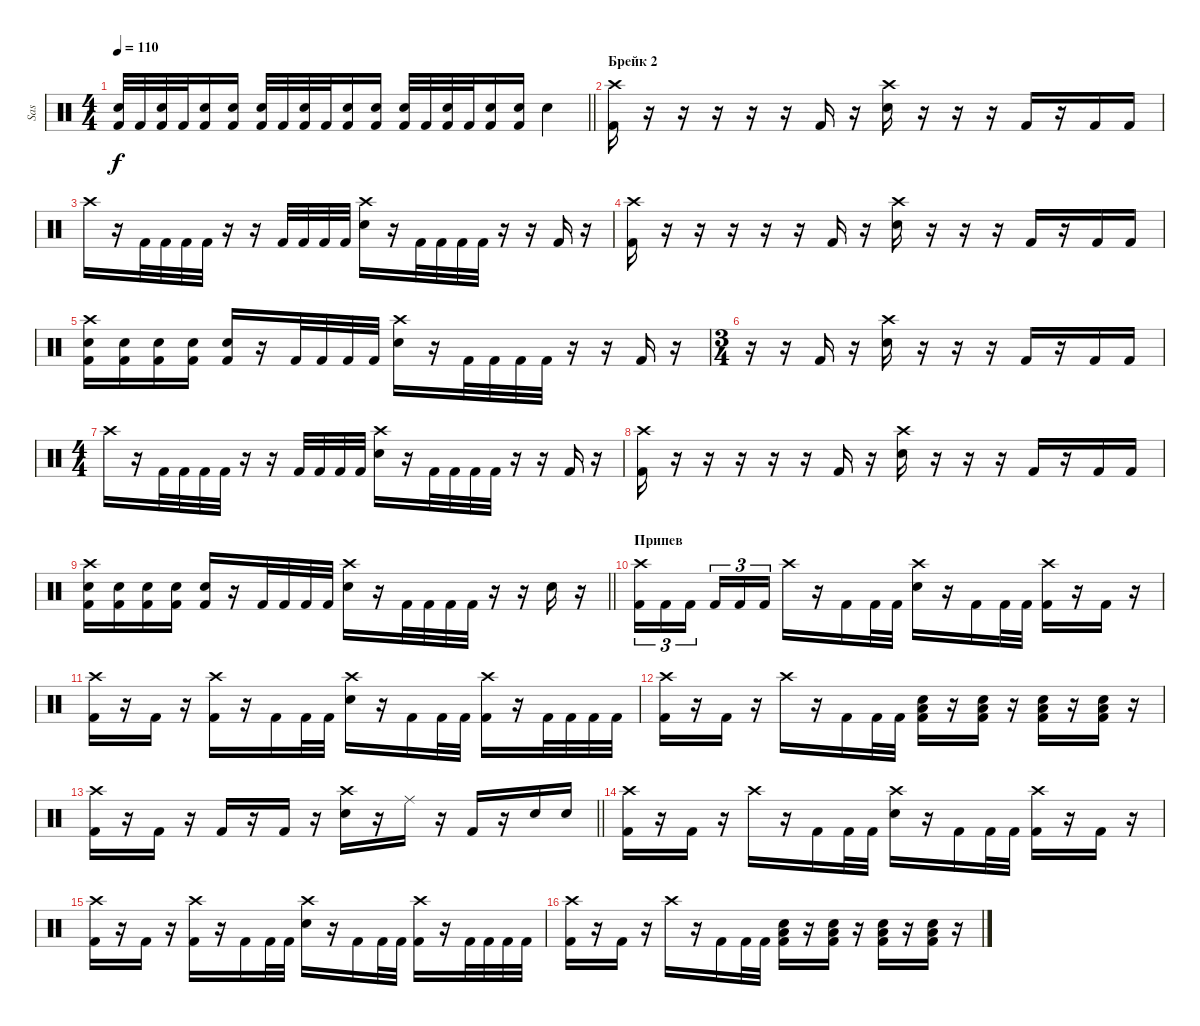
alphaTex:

\track ("Sas" "Sas") {instrument percussion}
\staff {score}
\articulation defaults
\ts (4 4)
\tempo 110
\clef neutral
\barLineRight lightlight
\ks c
("Snare (hit) 2" "Kick (hit) 2").32{dy f} "Kick (hit) 2".32 ("Snare (hit) 2" "Kick (hit) 2").32 "Kick (hit) 2".32 ("Snare (hit) 2" "Kick (hit) 2").16 ("Snare (hit) 2" "Kick (hit) 2").16 ("Snare (hit) 2" "Kick (hit) 2").32 "Kick (hit) 2".32 ("Snare (hit) 2" "Kick (hit) 2").32 "Kick (hit) 2".32 ("Snare (hit) 2" "Kick (hit) 2").16 ("Snare (hit) 2" "Kick (hit) 2").16 ("Snare (hit) 2" "Kick (hit) 2").32 "Kick (hit) 2".32 ("Snare (hit) 2" "Kick (hit) 2").32 "Kick (hit) 2".32 ("Snare (hit) 2" "Kick (hit) 2").16 ("Snare (hit) 2" "Kick (hit) 2").16 "Snare (hit) 2".4 |
\section ("" "Брейк 2")
("Crash high (hit)" "Kick (hit) 2").16 r.16 r.16 r.16 r.16 r.16 "Kick (hit) 2".16 r.16 ("Crash high (hit)" "Snare (hit) 2").16 r.16 r.16 r.16 "Kick (hit) 2".16 r.16 "Kick (hit) 2".16 "Kick (hit) 2".16 |
"Crash high (hit)".16 r.16 "Kick (hit) 2".32 "Kick (hit) 2".32 "Kick (hit) 2".32 "Kick (hit) 2".32 r.16 r.16 "Kick (hit) 2".32 "Kick (hit) 2".32 "Kick (hit) 2".32 "Kick (hit) 2".32 ("Crash high (hit)" "Snare (hit) 2").16 r.16 "Kick (hit) 2".32 "Kick (hit) 2".32 "Kick (hit) 2".32 "Kick (hit) 2".32 r.16 r.16 "Kick (hit) 2".16 r.16 |
("Crash high (hit)" "Kick (hit) 2").16 r.16 r.16 r.16 r.16 r.16 "Kick (hit) 2".16 r.16 ("Crash high (hit)" "Snare (hit) 2").16 r.16 r.16 r.16 "Kick (hit) 2".16 r.16 "Kick (hit) 2".16 "Kick (hit) 2".16 |
("Crash high (hit)" "Snare (hit) 2" "Kick (hit) 2").16 ("Snare (hit) 2" "Kick (hit) 2").16 ("Snare (hit) 2" "Kick (hit) 2").16 ("Snare (hit) 2" "Kick (hit) 2").16 ("Snare (hit) 2" "Kick (hit) 2").16 r.16 "Kick (hit) 2".32 "Kick (hit) 2".32 "Kick (hit) 2".32 "Kick (hit) 2".32 ("Crash high (hit)" "Snare (hit) 2").16 r.16 "Kick (hit) 2".32 "Kick (hit) 2".32 "Kick (hit) 2".32 "Kick (hit) 2".32 r.16 r.16 "Kick (hit) 2".16 r.16 |
\ts (3 4)
r.16 r.16 "Kick (hit) 2".16 r.16 ("Crash high (hit)" "Snare (hit) 2").16 r.16 r.16 r.16 "Kick (hit) 2".16 r.16 "Kick (hit) 2".16 "Kick (hit) 2".16 |
\ts (4 4)
"Crash high (hit)".16 r.16 "Kick (hit) 2".32 "Kick (hit) 2".32 "Kick (hit) 2".32 "Kick (hit) 2".32 r.16 r.16 "Kick (hit) 2".32 "Kick (hit) 2".32 "Kick (hit) 2".32 "Kick (hit) 2".32 ("Crash high (hit)" "Snare (hit) 2").16 r.16 "Kick (hit) 2".32 "Kick (hit) 2".32 "Kick (hit) 2".32 "Kick (hit) 2".32 r.16 r.16 "Kick (hit) 2".16 r.16 |
("Crash high (hit)" "Kick (hit) 2").16 r.16 r.16 r.16 r.16 r.16 "Kick (hit) 2".16 r.16 ("Crash high (hit)" "Snare (hit) 2").16 r.16 r.16 r.16 "Kick (hit) 2".16 r.16 "Kick (hit) 2".16 "Kick (hit) 2".16 |
\barLineRight lightlight
("Crash high (hit)" "Snare (hit) 2" "Kick (hit) 2").16 ("Snare (hit) 2" "Kick (hit) 2").16 ("Snare (hit) 2" "Kick (hit) 2").16 ("Snare (hit) 2" "Kick (hit) 2").16 ("Snare (hit) 2" "Kick (hit) 2").16 r.16 "Kick (hit) 2".32 "Kick (hit) 2".32 "Kick (hit) 2".32 "Kick (hit) 2".32 ("Crash high (hit)" "Snare (hit) 2").16 r.16 "Kick (hit) 2".32 "Kick (hit) 2".32 "Kick (hit) 2".32 "Kick (hit) 2".32 r.16 r.16 "Snare (hit) 2".16 r.16 |
\section ("" "Припев")
("Crash high (hit)" "Kick (hit) 2").16{tu (3 2)} "Kick (hit) 2".16{tu (3 2)} "Kick (hit) 2".16{tu (3 2) beam splitsecondary} "Kick (hit) 2".16{tu (3 2)} "Kick (hit) 2".16{tu (3 2)} "Kick (hit) 2".16{tu (3 2)} "Crash high (hit)".16 r.16 "Kick (hit) 2".16 "Kick (hit) 2".32 "Kick (hit) 2".32 ("Crash high (hit)" "Snare (hit) 2").16 r.16 "Kick (hit) 2".16 "Kick (hit) 2".32 "Kick (hit) 2".32 ("Crash high (hit)" "Kick (hit) 2").16 r.16 "Kick (hit) 2".16 r.16 |
("Crash high (hit)" "Kick (hit) 2").16 r.16 "Kick (hit) 2".16 r.16 ("Crash high (hit)" "Kick (hit) 2").16 r.16 "Kick (hit) 2".16 "Kick (hit) 2".32 "Kick (hit) 2".32 ("Crash high (hit)" "Snare (hit) 2").16 r.16 "Kick (hit) 2".16 "Kick (hit) 2".32 "Kick (hit) 2".32 ("Crash high (hit)" "Kick (hit) 2").16 r.16 "Kick (hit) 2".32 "Kick (hit) 2".32 "Kick (hit) 2".32 "Kick (hit) 2".32 |
("Crash high (hit)" "Kick (hit) 2").16 r.16 "Kick (hit) 2".16 r.16 "Crash high (hit)".16 r.16 "Kick (hit) 2".16 "Kick (hit) 2".32 "Kick (hit) 2".32 ("Low Tom (hit)" "Snare (hit) 2" "Kick (hit) 2").16 r.16 ("Low Tom (hit)" "Snare (hit) 2" "Kick (hit) 2").16 r.16 ("Low Tom (hit)" "Snare (hit) 2" "Kick (hit) 2").16 r.16 ("Low Tom (hit)" "Snare (hit) 2" "Kick (hit) 2").16 r.16 |
\barLineRight lightlight
("Crash high (hit)" "Kick (hit) 2").16 r.16 "Kick (hit) 2".16 r.16 "Kick (hit) 2".16 r.16 "Kick (hit) 2".16 r.16 ("Crash high (hit)" "Snare (hit) 2").16 r.16 "Ride (middle)".16 r.16 "Kick (hit) 2".16 r.16 "Snare (hit) 2".16 "Snare (hit) 2".16 |
("Crash high (hit)" "Kick (hit) 2").16 r.16 "Kick (hit) 2".16 r.16 "Crash high (hit)".16 r.16 "Kick (hit) 2".16 "Kick (hit) 2".32 "Kick (hit) 2".32 ("Crash high (hit)" "Snare (hit) 2").16 r.16 "Kick (hit) 2".16 "Kick (hit) 2".32 "Kick (hit) 2".32 ("Crash high (hit)" "Kick (hit) 2").16 r.16 "Kick (hit) 2".16 r.16 |
("Crash high (hit)" "Kick (hit) 2").16 r.16 "Kick (hit) 2".16 r.16 ("Crash high (hit)" "Kick (hit) 2").16 r.16 "Kick (hit) 2".16 "Kick (hit) 2".32 "Kick (hit) 2".32 ("Crash high (hit)" "Snare (hit) 2").16 r.16 "Kick (hit) 2".16 "Kick (hit) 2".32 "Kick (hit) 2".32 ("Crash high (hit)" "Kick (hit) 2").16 r.16 "Kick (hit) 2".32 "Kick (hit) 2".32 "Kick (hit) 2".32 "Kick (hit) 2".32 |
("Crash high (hit)" "Kick (hit) 2").16 r.16 "Kick (hit) 2".16 r.16 "Crash high (hit)".16 r.16 "Kick (hit) 2".16 "Kick (hit) 2".32 "Kick (hit) 2".32 ("Low Tom (hit)" "Snare (hit) 2" "Kick (hit) 2").16 r.16 ("Low Tom (hit)" "Snare (hit) 2" "Kick (hit) 2").16 r.16 ("Low Tom (hit)" "Snare (hit) 2" "Kick (hit) 2").16 r.16 ("Low Tom (hit)" "Snare (hit) 2" "Kick (hit) 2").16 r.16
